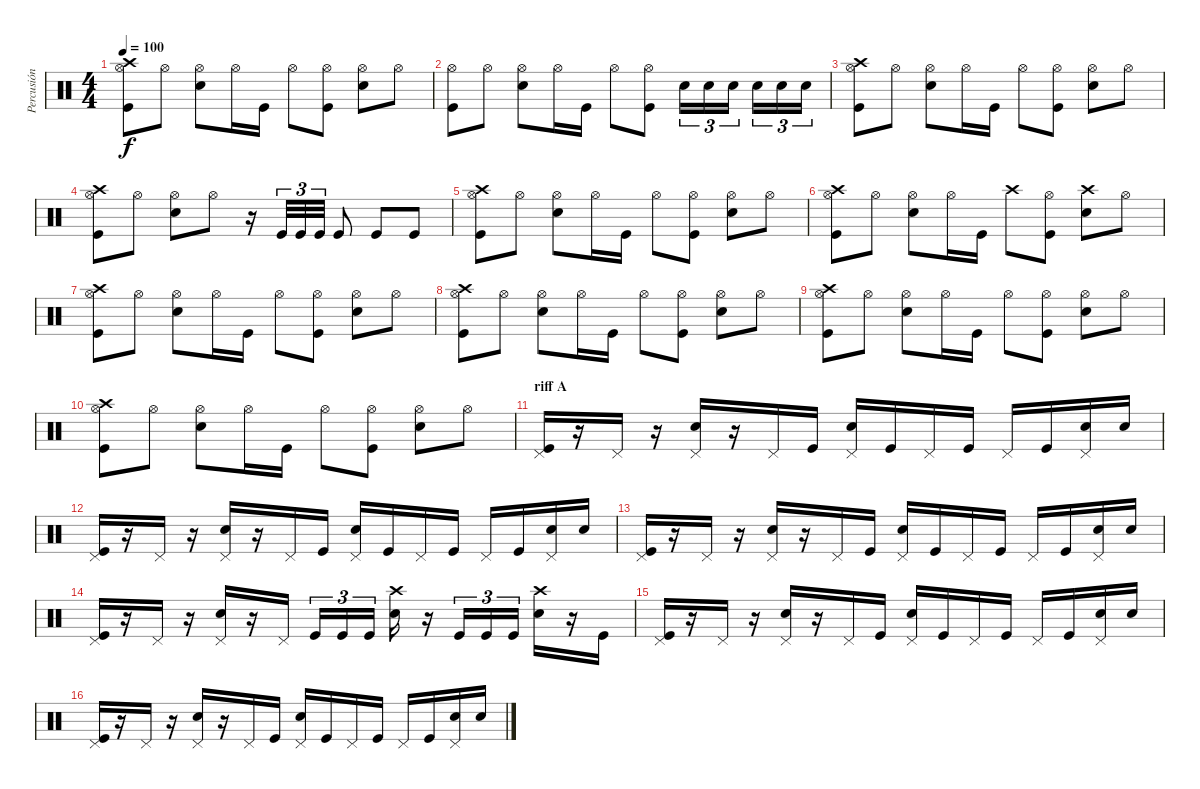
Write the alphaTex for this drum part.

\track ("Percusión" "Percusión") {instrument percussion}
\staff {score}
\articulation defaults
\ts (4 4)
\tempo 100
\clef neutral
\ks c
("Crash high (hit)" "Hi-Hat (open)" "Kick (hit)").8{dy f} "Hi-Hat (open)".8 ("Hi-Hat (open)" "Electric Snare (hit)").8 "Hi-Hat (open)".16 "Kick (hit)".16 "Hi-Hat (open)".8 ("Hi-Hat (open)" "Kick (hit)").8 ("Hi-Hat (open)" "Electric Snare (hit)").8 "Hi-Hat (open)".8 |
("Hi-Hat (open)" "Kick (hit)").8 "Hi-Hat (open)".8 ("Hi-Hat (open)" "Electric Snare (hit)").8 "Hi-Hat (open)".16 "Kick (hit)".16 "Hi-Hat (open)".8 ("Hi-Hat (open)" "Kick (hit)").8 "Electric Snare (hit)".16{tu (3 2)} "Electric Snare (hit)".16{tu (3 2)} "Electric Snare (hit)".16{tu (3 2)} "Electric Snare (hit)".16{tu (3 2)} "Electric Snare (hit)".16{tu (3 2)} "Electric Snare (hit)".16{tu (3 2)} |
("Crash high (hit)" "Hi-Hat (open)" "Kick (hit)").8 "Hi-Hat (open)".8 ("Hi-Hat (open)" "Electric Snare (hit)").8 "Hi-Hat (open)".16 "Kick (hit)".16 "Hi-Hat (open)".8 ("Hi-Hat (open)" "Kick (hit)").8 ("Hi-Hat (open)" "Electric Snare (hit)").8 "Hi-Hat (open)".8 |
("Crash high (hit)" "Hi-Hat (open)" "Kick (hit)").8 "Hi-Hat (open)".8 ("Hi-Hat (open)" "Electric Snare (hit)").8 "Hi-Hat (open)".8 r.16 "Kick (hit)".32{tu (3 2)} "Kick (hit)".32{tu (3 2)} "Kick (hit)".32{tu (3 2)} "Kick (hit)".8 "Kick (hit)".8 "Kick (hit)".8 |
("Crash high (hit)" "Hi-Hat (open)" "Kick (hit)").8 "Hi-Hat (open)".8 ("Hi-Hat (open)" "Electric Snare (hit)").8 "Hi-Hat (open)".16 "Kick (hit)".16 "Hi-Hat (open)".8 ("Hi-Hat (open)" "Kick (hit)").8 ("Hi-Hat (open)" "Electric Snare (hit)").8 "Hi-Hat (open)".8 |
("Crash high (hit)" "Hi-Hat (open)" "Kick (hit)").8 "Hi-Hat (open)".8 ("Hi-Hat (open)" "Electric Snare (hit)").8 "Hi-Hat (open)".16 "Kick (hit)".16 "Crash high (hit)".8 ("Hi-Hat (open)" "Kick (hit)").8 ("Crash high (hit)" "Electric Snare (hit)").8 "Hi-Hat (open)".8 |
("Crash high (hit)" "Hi-Hat (open)" "Kick (hit)").8 "Hi-Hat (open)".8 ("Hi-Hat (open)" "Electric Snare (hit)").8 "Hi-Hat (open)".16 "Kick (hit)".16 "Hi-Hat (open)".8 ("Hi-Hat (open)" "Kick (hit)").8 ("Hi-Hat (open)" "Electric Snare (hit)").8 "Hi-Hat (open)".8 |
("Crash high (hit)" "Hi-Hat (open)" "Kick (hit)").8 "Hi-Hat (open)".8 ("Hi-Hat (open)" "Electric Snare (hit)").8 "Hi-Hat (open)".16 "Kick (hit)".16 "Hi-Hat (open)".8 ("Hi-Hat (open)" "Kick (hit)").8 ("Hi-Hat (open)" "Electric Snare (hit)").8 "Hi-Hat (open)".8 |
("Crash high (hit)" "Hi-Hat (open)" "Kick (hit)").8 "Hi-Hat (open)".8 ("Hi-Hat (open)" "Electric Snare (hit)").8 "Hi-Hat (open)".16 "Kick (hit)".16 "Hi-Hat (open)".8 ("Hi-Hat (open)" "Kick (hit)").8 ("Hi-Hat (open)" "Electric Snare (hit)").8 "Hi-Hat (open)".8 |
("Crash high (hit)" "Hi-Hat (open)" "Kick (hit)").8 "Hi-Hat (open)".8 ("Hi-Hat (open)" "Electric Snare (hit)").8 "Hi-Hat (open)".16 "Kick (hit)".16 "Hi-Hat (open)".8 ("Hi-Hat (open)" "Kick (hit)").8 ("Hi-Hat (open)" "Electric Snare (hit)").8 "Hi-Hat (open)".8 |
\section ("" "riff A")
("Pedal Hi-Hat (hit)" "Kick (hit)").16 r.16 "Pedal Hi-Hat (hit)".16 r.16 ("Pedal Hi-Hat (hit)" "Electric Snare (hit)").16 r.16 "Pedal Hi-Hat (hit)".16 "Kick (hit)".16 ("Pedal Hi-Hat (hit)" "Electric Snare (hit)").16 "Kick (hit)".16 "Pedal Hi-Hat (hit)".16 "Kick (hit)".16 "Pedal Hi-Hat (hit)".16 "Kick (hit)".16 ("Pedal Hi-Hat (hit)" "Electric Snare (hit)").16 "Electric Snare (hit)".16 |
("Pedal Hi-Hat (hit)" "Kick (hit)").16 r.16 "Pedal Hi-Hat (hit)".16 r.16 ("Pedal Hi-Hat (hit)" "Electric Snare (hit)").16 r.16 "Pedal Hi-Hat (hit)".16 "Kick (hit)".16 ("Pedal Hi-Hat (hit)" "Electric Snare (hit)").16 "Kick (hit)".16 "Pedal Hi-Hat (hit)".16 "Kick (hit)".16 "Pedal Hi-Hat (hit)".16 "Kick (hit)".16 ("Pedal Hi-Hat (hit)" "Electric Snare (hit)").16 "Electric Snare (hit)".16 |
("Pedal Hi-Hat (hit)" "Kick (hit)").16 r.16 "Pedal Hi-Hat (hit)".16 r.16 ("Pedal Hi-Hat (hit)" "Electric Snare (hit)").16 r.16 "Pedal Hi-Hat (hit)".16 "Kick (hit)".16 ("Pedal Hi-Hat (hit)" "Electric Snare (hit)").16 "Kick (hit)".16 "Pedal Hi-Hat (hit)".16 "Kick (hit)".16 "Pedal Hi-Hat (hit)".16 "Kick (hit)".16 ("Pedal Hi-Hat (hit)" "Electric Snare (hit)").16 "Electric Snare (hit)".16 |
("Pedal Hi-Hat (hit)" "Kick (hit)").16 r.16 "Pedal Hi-Hat (hit)".16 r.16 ("Pedal Hi-Hat (hit)" "Electric Snare (hit)").16 r.16 "Pedal Hi-Hat (hit)".16 "Kick (hit)".16{tu (3 2)} "Kick (hit)".16{tu (3 2)} "Kick (hit)".16{tu (3 2)} ("Crash high (hit)" "Electric Snare (hit)").16 r.16 "Kick (hit)".16{tu (3 2)} "Kick (hit)".16{tu (3 2)} "Kick (hit)".16{tu (3 2)} ("Crash high (hit)" "Electric Snare (hit)").16 r.16 "Kick (hit)".16 |
("Pedal Hi-Hat (hit)" "Kick (hit)").16 r.16 "Pedal Hi-Hat (hit)".16 r.16 ("Pedal Hi-Hat (hit)" "Electric Snare (hit)").16 r.16 "Pedal Hi-Hat (hit)".16 "Kick (hit)".16 ("Pedal Hi-Hat (hit)" "Electric Snare (hit)").16 "Kick (hit)".16 "Pedal Hi-Hat (hit)".16 "Kick (hit)".16 "Pedal Hi-Hat (hit)".16 "Kick (hit)".16 ("Pedal Hi-Hat (hit)" "Electric Snare (hit)").16 "Electric Snare (hit)".16 |
("Pedal Hi-Hat (hit)" "Kick (hit)").16 r.16 "Pedal Hi-Hat (hit)".16 r.16 ("Pedal Hi-Hat (hit)" "Electric Snare (hit)").16 r.16 "Pedal Hi-Hat (hit)".16 "Kick (hit)".16 ("Pedal Hi-Hat (hit)" "Electric Snare (hit)").16 "Kick (hit)".16 "Pedal Hi-Hat (hit)".16 "Kick (hit)".16 "Pedal Hi-Hat (hit)".16 "Kick (hit)".16 ("Pedal Hi-Hat (hit)" "Electric Snare (hit)").16 "Electric Snare (hit)".16
